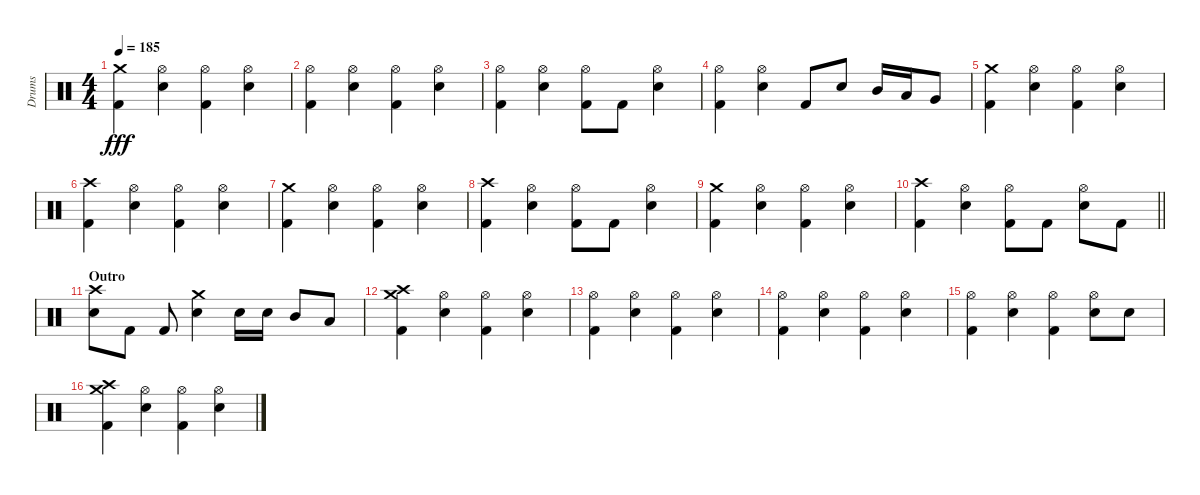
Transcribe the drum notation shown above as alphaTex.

\track ("Drums" "Drums") {instrument percussion}
\staff {score}
\articulation defaults
\ts (4 4)
\tempo 185
\clef neutral
\ks c
("Crash medium (hit)" "Kick (hit) 2").4{dy fff} ("Hi-Hat (open)" "Electric Snare (hit)").4 ("Hi-Hat (open)" "Kick (hit) 2").4 ("Hi-Hat (open)" "Electric Snare (hit)").4 |
("Hi-Hat (open)" "Kick (hit) 2").4 ("Hi-Hat (open)" "Electric Snare (hit)").4 ("Hi-Hat (open)" "Kick (hit) 2").4 ("Hi-Hat (open)" "Electric Snare (hit)").4 |
("Hi-Hat (open)" "Kick (hit) 2").4 ("Hi-Hat (open)" "Electric Snare (hit)").4 ("Hi-Hat (open)" "Kick (hit) 2").8 "Kick (hit) 2".8 ("Hi-Hat (open)" "Electric Snare (hit)").4 |
("Hi-Hat (open)" "Kick (hit) 2").4 ("Hi-Hat (open)" "Electric Snare (hit)").4 "Kick (hit) 2".8 "Electric Snare (hit)".8 "Mid Tom (hit)".16 "Low Tom (hit)".16 "Very Low Tom (hit)".8 |
("Crash medium (hit)" "Kick (hit) 2").4 ("Hi-Hat (open)" "Electric Snare (hit)").4 ("Hi-Hat (open)" "Kick (hit) 2").4 ("Hi-Hat (open)" "Electric Snare (hit)").4 |
("Crash high (hit)" "Kick (hit) 2").4 ("Hi-Hat (open)" "Electric Snare (hit)").4 ("Hi-Hat (open)" "Kick (hit) 2").4 ("Hi-Hat (open)" "Electric Snare (hit)").4 |
("Crash medium (hit)" "Kick (hit) 2").4 ("Hi-Hat (open)" "Electric Snare (hit)").4 ("Hi-Hat (open)" "Kick (hit) 2").4 ("Hi-Hat (open)" "Electric Snare (hit)").4 |
("Crash high (hit)" "Kick (hit) 2").4 ("Hi-Hat (open)" "Electric Snare (hit)").4 ("Hi-Hat (open)" "Kick (hit) 2").8 "Kick (hit) 2".8 ("Hi-Hat (open)" "Electric Snare (hit)").4 |
("Crash medium (hit)" "Kick (hit) 2").4 ("Hi-Hat (open)" "Electric Snare (hit)").4 ("Hi-Hat (open)" "Kick (hit) 2").4 ("Hi-Hat (open)" "Electric Snare (hit)").4 |
\barLineRight lightlight
("Crash high (hit)" "Kick (hit) 2").4 ("Hi-Hat (open)" "Electric Snare (hit)").4 ("Hi-Hat (open)" "Kick (hit) 2").8 "Kick (hit) 2".8 ("Hi-Hat (open)" "Electric Snare (hit)").8 "Kick (hit) 2".8 |
\section ("" "Outro")
("Crash high (hit)" "Electric Snare (hit)").8 "Kick (hit) 2".8 "Kick (hit) 2".8 ("Crash medium (hit)" "Electric Snare (hit)").4 "Electric Snare (hit)".16 "Electric Snare (hit)".16 "Mid Tom (hit)".8 "Low Tom (hit)".8 |
("Crash high (hit)" "Crash medium (hit)" "Kick (hit) 2").4 ("Hi-Hat (open)" "Electric Snare (hit)").4 ("Hi-Hat (open)" "Kick (hit) 2").4 ("Hi-Hat (open)" "Electric Snare (hit)").4 |
("Hi-Hat (open)" "Kick (hit) 2").4 ("Hi-Hat (open)" "Electric Snare (hit)").4 ("Hi-Hat (open)" "Kick (hit) 2").4 ("Hi-Hat (open)" "Electric Snare (hit)").4 |
("Hi-Hat (open)" "Kick (hit) 2").4 ("Hi-Hat (open)" "Electric Snare (hit)").4 ("Hi-Hat (open)" "Kick (hit) 2").4 ("Hi-Hat (open)" "Electric Snare (hit)").4 |
("Hi-Hat (open)" "Kick (hit) 2").4 ("Hi-Hat (open)" "Electric Snare (hit)").4 ("Hi-Hat (open)" "Kick (hit) 2").4 ("Hi-Hat (open)" "Electric Snare (hit)").8 "Electric Snare (hit)".8 |
("Crash high (hit)" "Crash medium (hit)" "Kick (hit) 2").4 ("Hi-Hat (open)" "Electric Snare (hit)").4 ("Hi-Hat (open)" "Kick (hit) 2").4 ("Hi-Hat (open)" "Electric Snare (hit)").4
